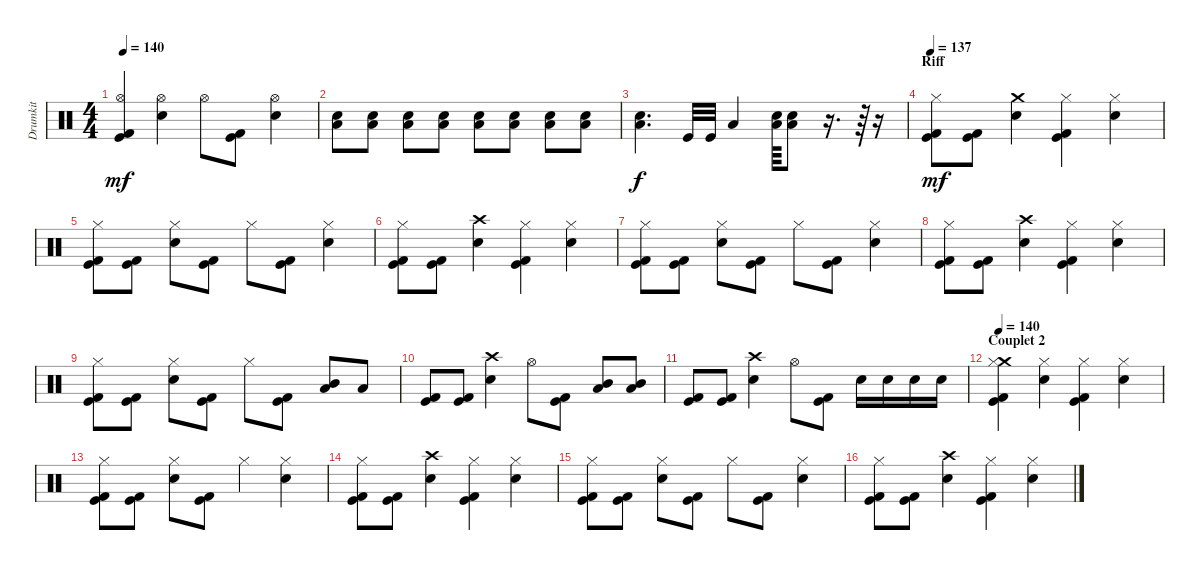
\track ("Drumkit" "Drumkit") {instrument percussion}
\staff {score}
\articulation defaults
\ts (4 4)
\tempo 140
\clef neutral
\ks c
("Kick (hit) 2" "Hi-Hat (open)" "Kick (hit)").4{dy mf} ("Hi-Hat (open)" "Snare (hit) 2").4 "Hi-Hat (open)".8 ("Kick (hit) 2" "Kick (hit)").8 ("Hi-Hat (open)" "Snare (hit) 2").4 |
("Snare (hit) 2" "Low Tom (hit)").8 ("Snare (hit) 2" "Low Tom (hit)").8 ("Snare (hit) 2" "Low Tom (hit)").8 ("Snare (hit) 2" "Low Tom (hit)").8 ("Snare (hit) 2" "Low Tom (hit)").8 ("Snare (hit) 2" "Low Tom (hit)").8 ("Snare (hit) 2" "Low Tom (hit)").8 ("Snare (hit) 2" "Low Tom (hit)").8 |
("Snare (hit) 2" "Low Tom (hit)").4{d dy f} "Kick (hit)".32 "Kick (hit)".32 "Low Tom (hit)".4 ("Snare (hit) 2" "Low Tom (hit)").64 ("Snare (hit) 2" "Low Tom (hit)").8 r.16{d} r.64 r.16 |
\section ("" "Riff")
\tempo 137
("Kick (hit) 2" "Hi-Hat (closed)" "Kick (hit)").8{dy mf} ("Kick (hit) 2" "Kick (hit)").8 ("Crash medium (hit)" "Snare (hit) 2").4 ("Kick (hit) 2" "Hi-Hat (closed)" "Kick (hit)").4 ("Hi-Hat (closed)" "Snare (hit) 2").4 |
("Kick (hit) 2" "Hi-Hat (closed)" "Kick (hit)").8 ("Kick (hit) 2" "Kick (hit)").8 ("Hi-Hat (closed)" "Snare (hit) 2").8 ("Kick (hit) 2" "Kick (hit)").8 "Hi-Hat (closed)".8 ("Kick (hit) 2" "Kick (hit)").8 ("Hi-Hat (closed)" "Snare (hit) 2").4 |
("Kick (hit) 2" "Hi-Hat (closed)" "Kick (hit)").8 ("Kick (hit) 2" "Kick (hit)").8 ("Crash high (hit)" "Snare (hit) 2").4 ("Kick (hit) 2" "Hi-Hat (closed)" "Kick (hit)").4 ("Hi-Hat (closed)" "Snare (hit) 2").4 |
("Kick (hit) 2" "Hi-Hat (closed)" "Kick (hit)").8 ("Kick (hit) 2" "Kick (hit)").8 ("Hi-Hat (closed)" "Snare (hit) 2").8 ("Kick (hit) 2" "Kick (hit)").8 "Hi-Hat (closed)".8 ("Kick (hit) 2" "Kick (hit)").8 ("Hi-Hat (closed)" "Snare (hit) 2").4 |
("Kick (hit) 2" "Hi-Hat (closed)" "Kick (hit)").8 ("Kick (hit) 2" "Kick (hit)").8 ("Crash high (hit)" "Snare (hit) 2").4 ("Kick (hit) 2" "Hi-Hat (closed)" "Kick (hit)").4 ("Hi-Hat (closed)" "Snare (hit) 2").4 |
("Kick (hit) 2" "Hi-Hat (closed)" "Kick (hit)").8 ("Kick (hit) 2" "Kick (hit)").8 ("Hi-Hat (closed)" "Snare (hit) 2").8 ("Kick (hit) 2" "Kick (hit)").8 "Hi-Hat (closed)".8 ("Kick (hit) 2" "Kick (hit)").8 ("Mid Tom (hit)" "Low Tom (hit)").8 "Low Tom (hit)".8 |
("Kick (hit) 2" "Kick (hit)").8 ("Kick (hit) 2" "Kick (hit)").8 ("Crash high (hit)" "Snare (hit) 2").4 "Hi-Hat (open)".8 ("Kick (hit) 2" "Kick (hit)").8 ("Mid Tom (hit)" "Low Tom (hit)").8 ("Mid Tom (hit)" "Low Tom (hit)").8 |
("Kick (hit) 2" "Kick (hit)").8 ("Kick (hit) 2" "Kick (hit)").8 ("Crash high (hit)" "Snare (hit) 2").4 "Hi-Hat (open)".8 ("Kick (hit) 2" "Kick (hit)").8 "Snare (hit) 2".16 "Snare (hit) 2".16 "Snare (hit) 2".16 "Snare (hit) 2".16 |
\section ("" "Couplet 2")
\tempo 140
("Crash medium (hit)" "Hi-Hat (closed)" "Kick (hit) 2" "Kick (hit)").4 ("Hi-Hat (closed)" "Snare (hit) 2").4 ("Kick (hit) 2" "Hi-Hat (closed)" "Kick (hit)").4 ("Hi-Hat (closed)" "Snare (hit) 2").4 |
("Kick (hit) 2" "Hi-Hat (closed)" "Kick (hit)").8 ("Kick (hit) 2" "Kick (hit)").8 ("Hi-Hat (closed)" "Snare (hit) 2").8 ("Kick (hit) 2" "Kick (hit)").8 "Hi-Hat (closed)".4 ("Hi-Hat (closed)" "Snare (hit) 2").4 |
("Kick (hit) 2" "Hi-Hat (closed)" "Kick (hit)").8 ("Kick (hit) 2" "Kick (hit)").8 ("Crash high (hit)" "Snare (hit) 2").4 ("Kick (hit) 2" "Hi-Hat (closed)" "Kick (hit)").4 ("Hi-Hat (closed)" "Snare (hit) 2").4 |
("Kick (hit) 2" "Hi-Hat (closed)" "Kick (hit)").8 ("Kick (hit) 2" "Kick (hit)").8 ("Hi-Hat (closed)" "Snare (hit) 2").8 ("Kick (hit) 2" "Kick (hit)").8 "Hi-Hat (closed)".8 ("Kick (hit) 2" "Kick (hit)").8 ("Hi-Hat (closed)" "Snare (hit) 2").4 |
("Kick (hit) 2" "Hi-Hat (closed)" "Kick (hit)").8 ("Kick (hit) 2" "Kick (hit)").8 ("Crash high (hit)" "Snare (hit) 2").4 ("Kick (hit) 2" "Hi-Hat (closed)" "Kick (hit)").4 ("Hi-Hat (closed)" "Snare (hit) 2").4
